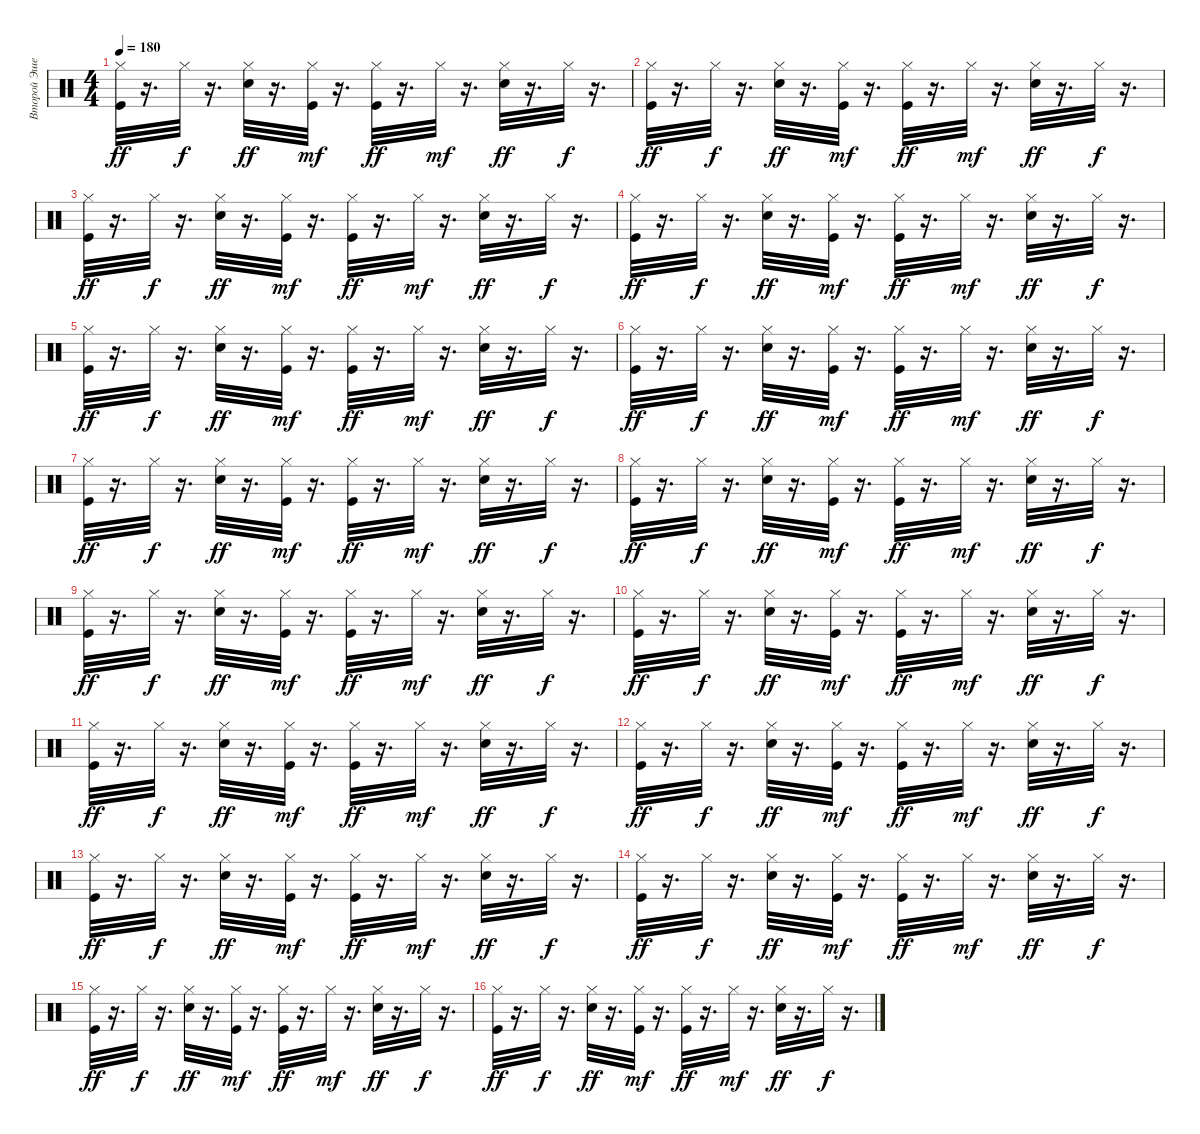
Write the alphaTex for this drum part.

\track ("Второй Эшелон" "Второй Эше") {instrument percussion}
\staff {score}
\articulation defaults
\ts (4 4)
\tempo 180
\clef neutral
\ks c
("Kick (hit)" "Hi-Hat (closed)").32{dy ff} r.16{d} "Hi-Hat (closed)".32{dy f} r.16{d} ("Hi-Hat (closed)" "Electric Snare (hit)").32{dy ff} r.16{d} ("Kick (hit)" "Hi-Hat (closed)").32{dy mf} r.16{d} ("Kick (hit)" "Hi-Hat (closed)").32{dy ff} r.16{d} "Hi-Hat (closed)".32{dy mf} r.16{d} ("Hi-Hat (closed)" "Electric Snare (hit)").32{dy ff} r.16{d} "Hi-Hat (closed)".32{dy f} r.16{d} |
("Kick (hit)" "Hi-Hat (closed)").32{dy ff} r.16{d} "Hi-Hat (closed)".32{dy f} r.16{d} ("Hi-Hat (closed)" "Electric Snare (hit)").32{dy ff} r.16{d} ("Kick (hit)" "Hi-Hat (closed)").32{dy mf} r.16{d} ("Kick (hit)" "Hi-Hat (closed)").32{dy ff} r.16{d} "Hi-Hat (closed)".32{dy mf} r.16{d} ("Hi-Hat (closed)" "Electric Snare (hit)").32{dy ff} r.16{d} "Hi-Hat (closed)".32{dy f} r.16{d} |
("Kick (hit)" "Hi-Hat (closed)").32{dy ff} r.16{d} "Hi-Hat (closed)".32{dy f} r.16{d} ("Hi-Hat (closed)" "Electric Snare (hit)").32{dy ff} r.16{d} ("Kick (hit)" "Hi-Hat (closed)").32{dy mf} r.16{d} ("Kick (hit)" "Hi-Hat (closed)").32{dy ff} r.16{d} "Hi-Hat (closed)".32{dy mf} r.16{d} ("Hi-Hat (closed)" "Electric Snare (hit)").32{dy ff} r.16{d} "Hi-Hat (closed)".32{dy f} r.16{d} |
("Kick (hit)" "Hi-Hat (closed)").32{dy ff} r.16{d} "Hi-Hat (closed)".32{dy f} r.16{d} ("Hi-Hat (closed)" "Electric Snare (hit)").32{dy ff} r.16{d} ("Kick (hit)" "Hi-Hat (closed)").32{dy mf} r.16{d} ("Kick (hit)" "Hi-Hat (closed)").32{dy ff} r.16{d} "Hi-Hat (closed)".32{dy mf} r.16{d} ("Hi-Hat (closed)" "Electric Snare (hit)").32{dy ff} r.16{d} "Hi-Hat (closed)".32{dy f} r.16{d} |
("Kick (hit)" "Hi-Hat (closed)").32{dy ff} r.16{d} "Hi-Hat (closed)".32{dy f} r.16{d} ("Hi-Hat (closed)" "Electric Snare (hit)").32{dy ff} r.16{d} ("Kick (hit)" "Hi-Hat (closed)").32{dy mf} r.16{d} ("Kick (hit)" "Hi-Hat (closed)").32{dy ff} r.16{d} "Hi-Hat (closed)".32{dy mf} r.16{d} ("Hi-Hat (closed)" "Electric Snare (hit)").32{dy ff} r.16{d} "Hi-Hat (closed)".32{dy f} r.16{d} |
("Kick (hit)" "Hi-Hat (closed)").32{dy ff} r.16{d} "Hi-Hat (closed)".32{dy f} r.16{d} ("Hi-Hat (closed)" "Electric Snare (hit)").32{dy ff} r.16{d} ("Kick (hit)" "Hi-Hat (closed)").32{dy mf} r.16{d} ("Kick (hit)" "Hi-Hat (closed)").32{dy ff} r.16{d} "Hi-Hat (closed)".32{dy mf} r.16{d} ("Hi-Hat (closed)" "Electric Snare (hit)").32{dy ff} r.16{d} "Hi-Hat (closed)".32{dy f} r.16{d} |
("Kick (hit)" "Hi-Hat (closed)").32{dy ff} r.16{d} "Hi-Hat (closed)".32{dy f} r.16{d} ("Hi-Hat (closed)" "Electric Snare (hit)").32{dy ff} r.16{d} ("Kick (hit)" "Hi-Hat (closed)").32{dy mf} r.16{d} ("Kick (hit)" "Hi-Hat (closed)").32{dy ff} r.16{d} "Hi-Hat (closed)".32{dy mf} r.16{d} ("Hi-Hat (closed)" "Electric Snare (hit)").32{dy ff} r.16{d} "Hi-Hat (closed)".32{dy f} r.16{d} |
("Kick (hit)" "Hi-Hat (closed)").32{dy ff} r.16{d} "Hi-Hat (closed)".32{dy f} r.16{d} ("Hi-Hat (closed)" "Electric Snare (hit)").32{dy ff} r.16{d} ("Kick (hit)" "Hi-Hat (closed)").32{dy mf} r.16{d} ("Kick (hit)" "Hi-Hat (closed)").32{dy ff} r.16{d} "Hi-Hat (closed)".32{dy mf} r.16{d} ("Hi-Hat (closed)" "Electric Snare (hit)").32{dy ff} r.16{d} "Hi-Hat (closed)".32{dy f} r.16{d} |
("Kick (hit)" "Hi-Hat (closed)").32{dy ff} r.16{d} "Hi-Hat (closed)".32{dy f} r.16{d} ("Hi-Hat (closed)" "Electric Snare (hit)").32{dy ff} r.16{d} ("Kick (hit)" "Hi-Hat (closed)").32{dy mf} r.16{d} ("Kick (hit)" "Hi-Hat (closed)").32{dy ff} r.16{d} "Hi-Hat (closed)".32{dy mf} r.16{d} ("Hi-Hat (closed)" "Electric Snare (hit)").32{dy ff} r.16{d} "Hi-Hat (closed)".32{dy f} r.16{d} |
("Kick (hit)" "Hi-Hat (closed)").32{dy ff} r.16{d} "Hi-Hat (closed)".32{dy f} r.16{d} ("Hi-Hat (closed)" "Electric Snare (hit)").32{dy ff} r.16{d} ("Kick (hit)" "Hi-Hat (closed)").32{dy mf} r.16{d} ("Kick (hit)" "Hi-Hat (closed)").32{dy ff} r.16{d} "Hi-Hat (closed)".32{dy mf} r.16{d} ("Hi-Hat (closed)" "Electric Snare (hit)").32{dy ff} r.16{d} "Hi-Hat (closed)".32{dy f} r.16{d} |
("Kick (hit)" "Hi-Hat (closed)").32{dy ff} r.16{d} "Hi-Hat (closed)".32{dy f} r.16{d} ("Hi-Hat (closed)" "Electric Snare (hit)").32{dy ff} r.16{d} ("Kick (hit)" "Hi-Hat (closed)").32{dy mf} r.16{d} ("Kick (hit)" "Hi-Hat (closed)").32{dy ff} r.16{d} "Hi-Hat (closed)".32{dy mf} r.16{d} ("Hi-Hat (closed)" "Electric Snare (hit)").32{dy ff} r.16{d} "Hi-Hat (closed)".32{dy f} r.16{d} |
("Kick (hit)" "Hi-Hat (closed)").32{dy ff} r.16{d} "Hi-Hat (closed)".32{dy f} r.16{d} ("Hi-Hat (closed)" "Electric Snare (hit)").32{dy ff} r.16{d} ("Kick (hit)" "Hi-Hat (closed)").32{dy mf} r.16{d} ("Kick (hit)" "Hi-Hat (closed)").32{dy ff} r.16{d} "Hi-Hat (closed)".32{dy mf} r.16{d} ("Hi-Hat (closed)" "Electric Snare (hit)").32{dy ff} r.16{d} "Hi-Hat (closed)".32{dy f} r.16{d} |
("Kick (hit)" "Hi-Hat (closed)").32{dy ff} r.16{d} "Hi-Hat (closed)".32{dy f} r.16{d} ("Hi-Hat (closed)" "Electric Snare (hit)").32{dy ff} r.16{d} ("Kick (hit)" "Hi-Hat (closed)").32{dy mf} r.16{d} ("Kick (hit)" "Hi-Hat (closed)").32{dy ff} r.16{d} "Hi-Hat (closed)".32{dy mf} r.16{d} ("Hi-Hat (closed)" "Electric Snare (hit)").32{dy ff} r.16{d} "Hi-Hat (closed)".32{dy f} r.16{d} |
("Kick (hit)" "Hi-Hat (closed)").32{dy ff} r.16{d} "Hi-Hat (closed)".32{dy f} r.16{d} ("Hi-Hat (closed)" "Electric Snare (hit)").32{dy ff} r.16{d} ("Kick (hit)" "Hi-Hat (closed)").32{dy mf} r.16{d} ("Kick (hit)" "Hi-Hat (closed)").32{dy ff} r.16{d} "Hi-Hat (closed)".32{dy mf} r.16{d} ("Hi-Hat (closed)" "Electric Snare (hit)").32{dy ff} r.16{d} "Hi-Hat (closed)".32{dy f} r.16{d} |
("Kick (hit)" "Hi-Hat (closed)").32{dy ff} r.16{d} "Hi-Hat (closed)".32{dy f} r.16{d} ("Hi-Hat (closed)" "Electric Snare (hit)").32{dy ff} r.16{d} ("Kick (hit)" "Hi-Hat (closed)").32{dy mf} r.16{d} ("Kick (hit)" "Hi-Hat (closed)").32{dy ff} r.16{d} "Hi-Hat (closed)".32{dy mf} r.16{d} ("Hi-Hat (closed)" "Electric Snare (hit)").32{dy ff} r.16{d} "Hi-Hat (closed)".32{dy f} r.16{d} |
("Kick (hit)" "Hi-Hat (closed)").32{dy ff} r.16{d} "Hi-Hat (closed)".32{dy f} r.16{d} ("Hi-Hat (closed)" "Electric Snare (hit)").32{dy ff} r.16{d} ("Kick (hit)" "Hi-Hat (closed)").32{dy mf} r.16{d} ("Kick (hit)" "Hi-Hat (closed)").32{dy ff} r.16{d} "Hi-Hat (closed)".32{dy mf} r.16{d} ("Hi-Hat (closed)" "Electric Snare (hit)").32{dy ff} r.16{d} "Hi-Hat (closed)".32{dy f} r.16{d}
